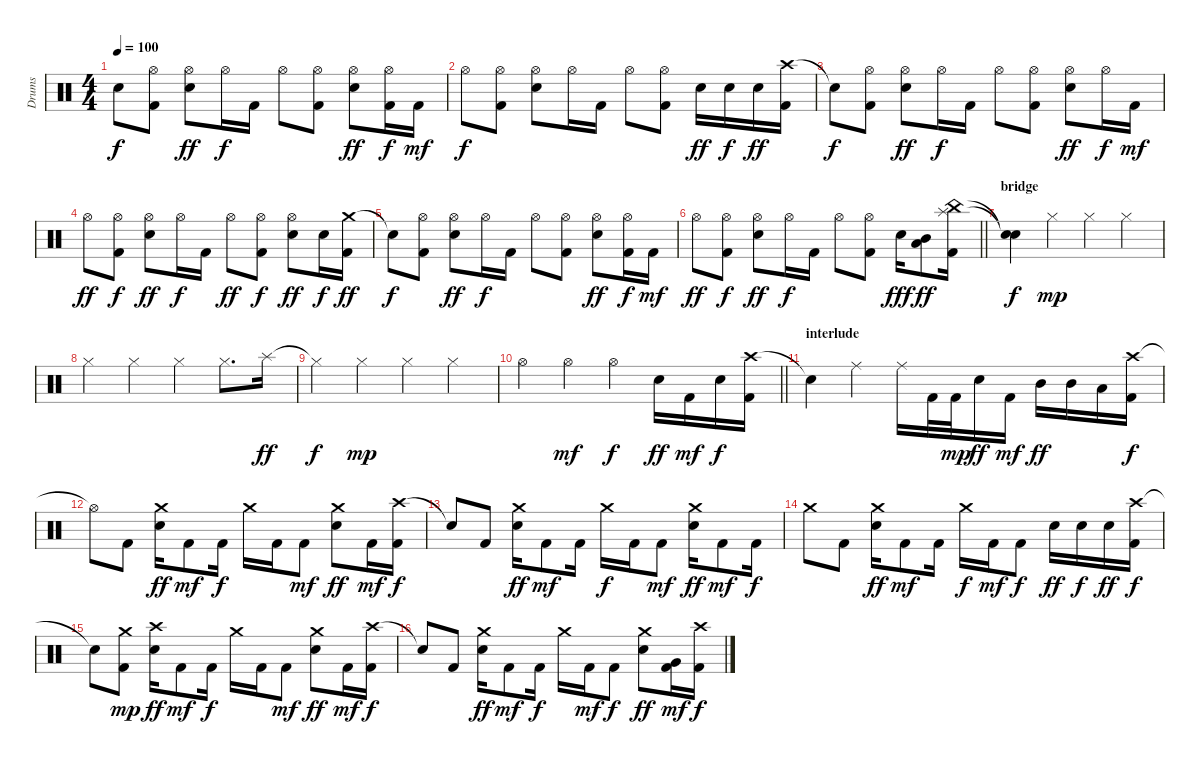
\track ("Drums" "Drums") {instrument percussion}
\staff {score}
\articulation defaults
\ts (4 4)
\tempo 100
\clef neutral
\ks c "Snare (hit)"{t}.8{dy f}
("Hi-Hat (open)" "Kick (hit) 2").8 ("Hi-Hat (open)" "Snare (hit) 2").8{dy ff} "Hi-Hat (open)".16{dy f} "Kick (hit) 2".16 "Hi-Hat (open)".8 ("Hi-Hat (open)" "Kick (hit) 2").8 ("Hi-Hat (open)" "Snare (hit) 2").8{dy ff} ("Hi-Hat (open)" "Kick (hit) 2").16{dy f} "Kick (hit) 2".16{dy mf} |
"Hi-Hat (open)".8{dy f} ("Hi-Hat (open)" "Kick (hit) 2").8 ("Hi-Hat (open)" "Snare (hit) 2").8 "Hi-Hat (open)".16 "Kick (hit) 2".16 "Hi-Hat (open)".8 ("Hi-Hat (open)" "Kick (hit) 2").8 "Snare (hit) 2".16{dy ff} "Snare (hit) 2".16{dy f} "Snare (hit) 2".16{dy ff} ("Crash high (hit)" "Kick (hit) 2").16 |
"Snare (hit)"{t}.8{dy f} ("Hi-Hat (open)" "Kick (hit) 2").8 ("Hi-Hat (open)" "Snare (hit) 2").8{dy ff} "Hi-Hat (open)".16{dy f} "Kick (hit) 2".16 "Hi-Hat (open)".8 ("Hi-Hat (open)" "Kick (hit) 2").8 ("Hi-Hat (open)" "Snare (hit) 2").8{dy ff} "Hi-Hat (open)".16{dy f} "Kick (hit) 2".16{dy mf} |
"Hi-Hat (open)".8{dy ff} ("Hi-Hat (open)" "Kick (hit) 2").8{dy f} ("Hi-Hat (open)" "Snare (hit) 2").8{dy ff} "Hi-Hat (open)".16{dy f} "Kick (hit) 2".16 "Hi-Hat (open)".8{dy ff} ("Hi-Hat (open)" "Kick (hit) 2").8{dy f} ("Hi-Hat (open)" "Snare (hit) 2").8{dy ff} "Snare (hit) 2".16{dy f} ("Crash medium (hit)" "Kick (hit) 2").16{dy ff} |
"Snare (hit)"{t}.8{dy f} ("Hi-Hat (open)" "Kick (hit) 2").8 ("Hi-Hat (open)" "Snare (hit) 2").8{dy ff} "Hi-Hat (open)".16{dy f} "Kick (hit) 2".16 "Hi-Hat (open)".8 ("Hi-Hat (open)" "Kick (hit) 2").8 ("Hi-Hat (open)" "Snare (hit) 2").8{dy ff} ("Hi-Hat (open)" "Kick (hit) 2").16{dy f} "Kick (hit) 2".16{dy mf} |
\barLineRight lightlight "Hi-Hat (open)".8{dy ff}
("Hi-Hat (open)" "Kick (hit) 2").8{dy f} ("Hi-Hat (open)" "Snare (hit) 2").8{dy ff} "Hi-Hat (open)".16{dy f} "Kick (hit) 2".16 "Hi-Hat (open)".8 ("Hi-Hat (open)" "Kick (hit) 2").8 "Snare (hit) 2".16{dy fff} ("Low Tom (hit)" "Mid Tom (hit)").8{dy ff} ("China (hit)" "Splash (hit)" "Kick (hit) 2").16 |
\section ("" "bridge")
("Snare (hit)"{t} "Snare (hit)"{t}).4{dy f} "Hi-Hat (closed)".4{dy mp} "Hi-Hat (closed)".4 "Hi-Hat (closed)".4 |
"Hi-Hat (closed)".4 "Hi-Hat (closed)".4 "Hi-Hat (closed)".4 "Hi-Hat (closed)".8{d} "Splash (hit)".16{dy ff} |
"Hi-Hat (closed)"{t}.4{dy f} "Hi-Hat (closed)".4{dy mp} "Hi-Hat (closed)".4 "Hi-Hat (closed)".4 |
\barLineRight lightlight "Hi-Hat (open)".4 "Hi-Hat (open)".4{dy mf} "Hi-Hat (open)".4{dy f} "Snare (hit) 2".16{dy ff} "Kick (hit) 2".16{dy mf} "Snare (hit) 2".16{dy f}
("Crash high (hit)" "Kick (hit) 2").16 |
\section ("" "interlude")
"Snare (hit)"{t}.4 "Ride (middle)".4 "Ride (middle)".16 "Kick (hit) 2".32 "Kick (hit) 2".32{dy mp} "Snare (hit) 2".16{dy ff} "Kick (hit) 2".16{dy mf} "Mid Tom (hit)".16{dy ff} "Mid Tom (hit)".16 "Low Tom (hit)".16 ("Crash high (hit)" "Kick (hit) 2").16{dy f} |
"Hi-Hat (open)"{t}.8 "Kick (hit) 2".8 ("Crash medium (hit)" "Snare (hit) 2").16{dy ff} "Kick (hit) 2".8{dy mf} "Kick (hit) 2".16{dy f} "Crash medium (hit)".16 "Kick (hit) 2".16 "Kick (hit) 2".8{dy mf} ("Crash medium (hit)" "Snare (hit) 2").8{dy ff} "Kick (hit) 2".16{dy mf} ("Crash high (hit)" "Kick (hit) 2").16{dy f} |
"Snare (hit)"{t}.8 "Kick (hit) 2".8 ("Crash medium (hit)" "Snare (hit) 2").16{dy ff} "Kick (hit) 2".8{dy mf} "Kick (hit) 2".16 "Crash medium (hit)".16{dy f} "Kick (hit) 2".16 "Kick (hit) 2".8{dy mf} ("Crash medium (hit)" "Snare (hit) 2").16{dy ff} "Kick (hit) 2".8{dy mf} "Kick (hit) 2".16{dy f} |
"Crash medium (hit)".8 "Kick (hit) 2".8 ("Crash medium (hit)" "Snare (hit) 2").16{dy ff} "Kick (hit) 2".8{dy mf} "Kick (hit) 2".16 "Crash medium (hit)".16{dy f} "Kick (hit) 2".16{dy mf} "Kick (hit) 2".8{dy f} "Snare (hit) 2".16{dy ff} "Snare (hit) 2".16{dy f} "Snare (hit) 2".16{dy ff} ("Crash high (hit)" "Kick (hit) 2").16{dy f} |
"Snare (hit)"{t}.8 ("Crash medium (hit)" "Kick (hit) 2").8{dy mp} ("Crash high (hit)" "Snare (hit) 2").16{dy ff} "Kick (hit) 2".8{dy mf} "Kick (hit) 2".16{dy f} "Crash medium (hit)".16 "Kick (hit) 2".16 "Kick (hit) 2".8{dy mf} ("Crash medium (hit)" "Snare (hit) 2").8{dy ff} "Kick (hit) 2".16{dy mf} ("Crash high (hit)" "Kick (hit) 2").16{dy f} |
"Snare (hit)"{t}.8 "Kick (hit) 2".8 ("Crash medium (hit)" "Snare (hit) 2").16{dy ff} "Kick (hit) 2".8{dy mf} "Kick (hit) 2".16{dy f} "Crash medium (hit)".16 "Kick (hit) 2".16{dy mf} "Kick (hit) 2".8{dy f} ("Crash medium (hit)" "Snare (hit) 2").8{dy ff} ("Very Low Tom (hit)" "Kick (hit) 2").16{dy mf} ("Crash high (hit)" "Kick (hit) 2").16{dy f}
